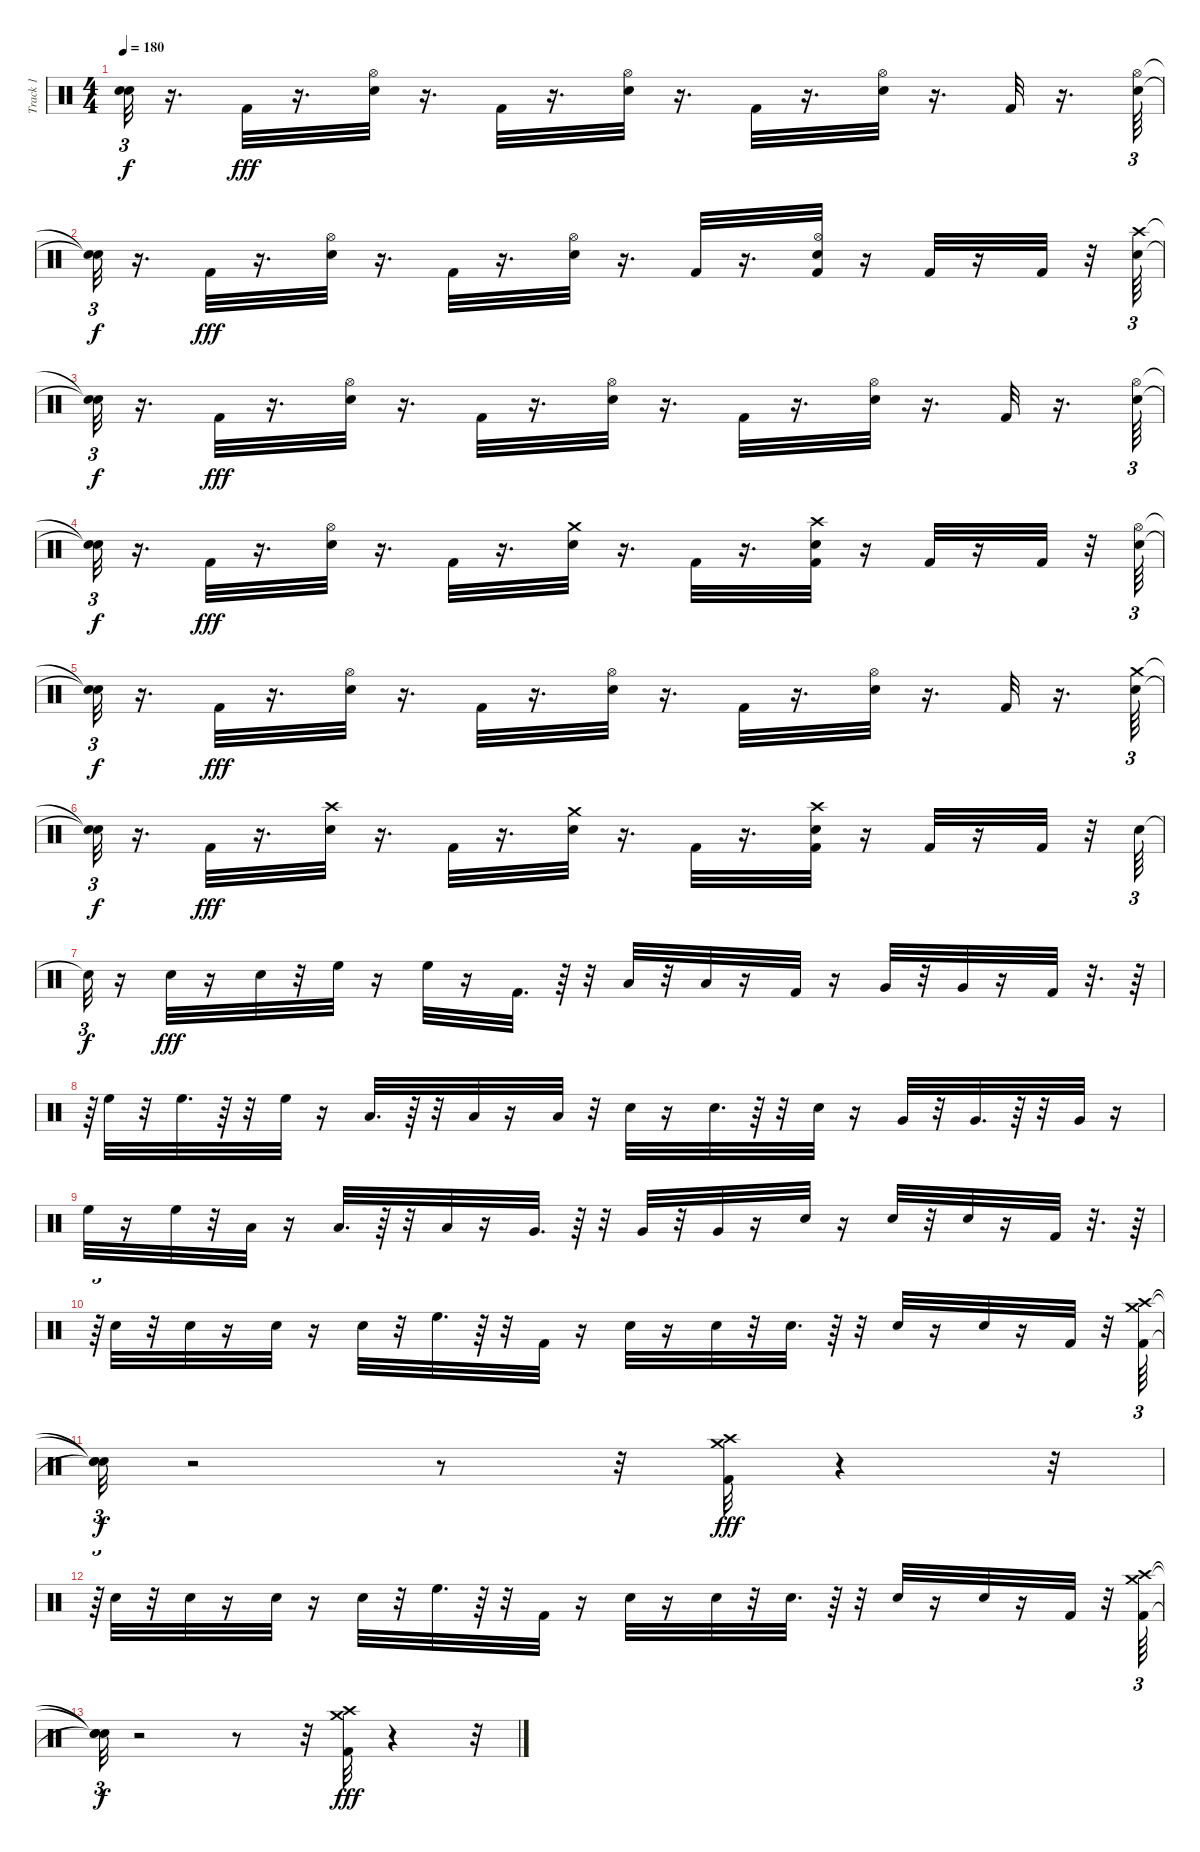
\track ("Track 1" "Track 1") {mute instrument percussion}
\staff {score}
\articulation defaults
\ts (4 4)
\tempo 180
\clef neutral
\ks c
("Snare (hit)"{t} "Snare (hit)"{t}).32{tu (3 2) dy f} r.16{d} "Kick (hit) 2".32{dy fff} r.16{d} ("Hi-Hat (open)" "Electric Snare (hit)").32 r.16{d} "Kick (hit) 2".32 r.16{d} ("Electric Snare (hit)" "Hi-Hat (open)").32 r.16{d} "Kick (hit) 2".32 r.16{d} ("Electric Snare (hit)" "Hi-Hat (open)").32 r.16{d} "Kick (hit) 2".32 r.16{d} ("Electric Snare (hit)" "Hi-Hat (open)").64{tu (3 2)} |
("Snare (hit)"{t} "Snare (hit)"{t}).32{tu (3 2) dy f} r.16{d} "Kick (hit) 2".32{dy fff} r.16{d} ("Hi-Hat (open)" "Electric Snare (hit)").32 r.16{d} "Kick (hit) 2".32 r.16{d} ("Electric Snare (hit)" "Hi-Hat (open)").32 r.16{d} "Kick (hit) 2".32 r.16{d} ("Hi-Hat (open)" "Electric Snare (hit)" "Kick (hit) 2").32 r.16 "Kick (hit) 2".32 r.16 "Kick (hit) 2".32 r.32 ("Electric Snare (hit)" "Crash high (hit)").64{tu (3 2)} |
("Snare (hit)"{t} "Snare (hit)"{t}).32{tu (3 2) dy f} r.16{d} "Kick (hit) 2".32{dy fff} r.16{d} ("Electric Snare (hit)" "Hi-Hat (open)").32 r.16{d} "Kick (hit) 2".32 r.16{d} ("Hi-Hat (open)" "Electric Snare (hit)").32 r.16{d} "Kick (hit) 2".32 r.16{d} ("Electric Snare (hit)" "Hi-Hat (open)").32 r.16{d} "Kick (hit) 2".32 r.16{d} ("Electric Snare (hit)" "Hi-Hat (open)").64{tu (3 2)} |
("Snare (hit)"{t} "Snare (hit)"{t}).32{tu (3 2) dy f} r.16{d} "Kick (hit) 2".32{dy fff} r.16{d} ("Electric Snare (hit)" "Hi-Hat (open)").32 r.16{d} "Kick (hit) 2".32 r.16{d} ("Electric Snare (hit)" "Crash medium (hit)").32 r.16{d} "Kick (hit) 2".32 r.16{d} ("Crash high (hit)" "Electric Snare (hit)" "Kick (hit) 2").32 r.16 "Kick (hit) 2".32 r.16 "Kick (hit) 2".32 r.32 ("Electric Snare (hit)" "Hi-Hat (open)").64{tu (3 2)} |
("Snare (hit)"{t} "Snare (hit)"{t}).32{tu (3 2) dy f} r.16{d} "Kick (hit) 2".32{dy fff} r.16{d} ("Hi-Hat (open)" "Electric Snare (hit)").32 r.16{d} "Kick (hit) 2".32 r.16{d} ("Electric Snare (hit)" "Hi-Hat (open)").32 r.16{d} "Kick (hit) 2".32 r.16{d} ("Electric Snare (hit)" "Hi-Hat (open)").32 r.16{d} "Kick (hit) 2".32 r.16{d} ("Electric Snare (hit)" "Crash medium (hit)").64{tu (3 2)} |
("Snare (hit)"{t} "Snare (hit)"{t}).32{tu (3 2) dy f} r.16{d} "Kick (hit) 2".32{dy fff} r.16{d} ("Crash high (hit)" "Electric Snare (hit)").32 r.16{d} "Kick (hit) 2".32 r.16{d} ("Electric Snare (hit)" "Crash medium (hit)").32 r.16{d} "Kick (hit) 2".32 r.16{d} ("Electric Snare (hit)" "Crash high (hit)" "Kick (hit) 2").32 r.16 "Kick (hit) 2".32 r.16 "Kick (hit) 2".32 r.32 "Electric Snare (hit)".64{tu (3 2)} |
"Snare (hit)"{t}.32{tu (3 2) dy f} r.16 "Snare (hit) 2".32{dy fff} r.16 "Snare (hit) 2".32 r.32 "High Floor Tom (hit)".32 r.16 "High Floor Tom (hit)".32 r.16 "Kick (hit) 2".32{d} r.64 r.32 "Low Tom (hit)".32 r.32 "Low Tom (hit)".32 r.16 "Kick (hit) 2".32 r.16 "Very Low Tom (hit)".32 r.32 "Very Low Tom (hit)".32 r.16 "Kick (hit) 2".32 r.32{d} r.64 |
r.64{tu (3 2)} "High Floor Tom (hit)".32 r.32 "High Floor Tom (hit)".32{d} r.64 r.32 "High Floor Tom (hit)".32 r.16 "Low Tom (hit)".32{d} r.64 r.32 "Low Tom (hit)".32 r.16 "Low Tom (hit)".32 r.32 "Electric Snare (hit)".32 r.16 "Electric Snare (hit)".32{d} r.64 r.32 "Electric Snare (hit)".32 r.16 "Very Low Tom (hit)".32 r.32 "Very Low Tom (hit)".32{d} r.64 r.32 "Very Low Tom (hit)".32 r.16 |
"High Floor Tom (hit)".32 r.16 "High Floor Tom (hit)".32 r.32 "Low Tom (hit)".32 r.16 "Low Tom (hit)".32{d} r.64 r.32 "Low Tom (hit)".32 r.16 "Very Low Tom (hit)".32{d} r.64 r.32 "Very Low Tom (hit)".32 r.32 "Very Low Tom (hit)".32 r.16 "Electric Snare (hit)".32 r.16 "Electric Snare (hit)".32 r.32 "Electric Snare (hit)".32 r.16 "Kick (hit) 2".32 r.32{d} r.64 |
r.64{tu (3 2)} "Electric Snare (hit)".32 r.32 "Snare (hit) 2".32 r.16 "Electric Snare (hit)".32 r.16 "Electric Snare (hit)".32 r.32 "High Floor Tom (hit)".32{d} r.64 r.32 "Kick (hit) 2".32 r.16 "Electric Snare (hit)".32 r.16 "Electric Snare (hit)".32 r.32 "Electric Snare (hit)".32{d} r.64 r.32 "Electric Snare (hit)".32 r.16 "Electric Snare (hit)".32 r.16 "Kick (hit) 2".32 r.32 ("Crash medium (hit)" "Crash high (hit)" "Kick (hit) 2").64{tu (3 2)} |
("Snare (hit)"{t} "Snare (hit)"{t} "Snare (hit)"{t}).32{tu (3 2) dy f} r.2 r.8 r.32 ("Crash medium (hit)" "Crash high (hit)" "Kick (hit) 2").32{dy fff} r.4 r.32 |
r.64{tu (3 2)} "Electric Snare (hit)".32 r.32 "Snare (hit) 2".32 r.16 "Electric Snare (hit)".32 r.16 "Electric Snare (hit)".32 r.32 "High Floor Tom (hit)".32{d} r.64 r.32 "Kick (hit) 2".32 r.16 "Electric Snare (hit)".32 r.16 "Electric Snare (hit)".32 r.32 "Electric Snare (hit)".32{d} r.64 r.32 "Electric Snare (hit)".32 r.16 "Electric Snare (hit)".32 r.16 "Kick (hit) 2".32 r.32 ("Crash medium (hit)" "Crash high (hit)" "Kick (hit) 2").64{tu (3 2)} |
("Snare (hit)"{t} "Snare (hit)"{t} "Snare (hit)"{t}).32{tu (3 2) dy f} r.2 r.8 r.32 ("Crash medium (hit)" "Crash high (hit)" "Kick (hit) 2").32{dy fff} r.4 r.32
